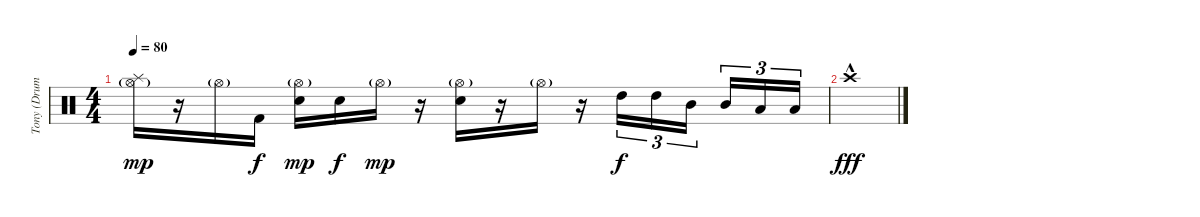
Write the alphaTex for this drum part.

\track ("Tony (Drums)" "Tony (Drum") {instrument percussion}
\staff {score}
\articulation defaults
\ts (4 4)
\tempo 80
\clef neutral
\ks c
("Splash (hit)" "Hi-Hat (open)"{g}).16{dy mp} r.16 "Hi-Hat (open)"{g}.16 "Kick (hit) 2".16{dy f} ("Hi-Hat (open)"{g} "Snare (hit) 2").16{dy mp} "Snare (hit) 2".16{dy f} "Hi-Hat (open)"{g}.16{dy mp} r.16 ("Hi-Hat (open)"{g} "Snare (hit) 2").16 r.16 "Hi-Hat (open)"{g}.16 r.16 "High Tom (hit)".16{tu (3 2) dy f} "High Tom (hit)".16{tu (3 2)} "Mid Tom (hit)".16{tu (3 2) beam splitsecondary} "Mid Tom (hit)".16{tu (3 2)} "Low Floor Tom (hit)".16{tu (3 2)} "Low Floor Tom (hit)".16{tu (3 2)} |
"Crash high (hit)"{hac}.1{dy fff}
